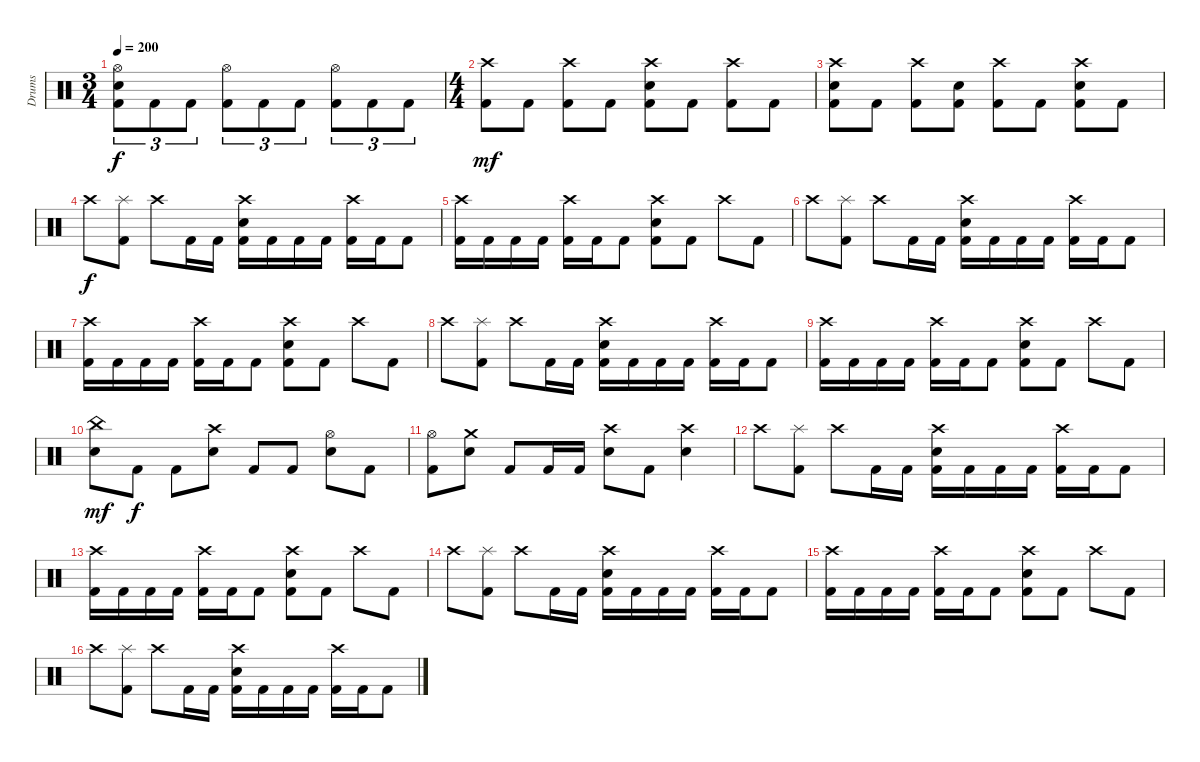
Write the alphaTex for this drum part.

\track ("Drums" "Drums") {instrument percussion}
\staff {score}
\articulation defaults
\ts (3 4)
\tempo 200
\clef neutral
\ks c
("Hi-Hat (open)" "Electric Snare (hit)" "Kick (hit) 2").8{tu (3 2) dy f} "Kick (hit) 2".8{tu (3 2)} "Kick (hit) 2".8{tu (3 2)} ("Hi-Hat (open)" "Kick (hit) 2").8{tu (3 2)} "Kick (hit) 2".8{tu (3 2)} "Kick (hit) 2".8{tu (3 2)} ("Hi-Hat (open)" "Kick (hit) 2").8{tu (3 2)} "Kick (hit) 2".8{tu (3 2)} "Kick (hit) 2".8{tu (3 2)} |
\ts (4 4)
("Crash high (hit)" "Kick (hit) 2").8{dy mf} "Kick (hit) 2".8 ("Crash high (hit)" "Kick (hit) 2").8 "Kick (hit) 2".8 ("Crash high (hit)" "Electric Snare (hit)" "Kick (hit) 2").8 "Kick (hit) 2".8 ("Crash high (hit)" "Kick (hit) 2").8 "Kick (hit) 2".8 |
("Crash high (hit)" "Electric Snare (hit)" "Kick (hit) 2").8 "Kick (hit) 2".8 ("Crash high (hit)" "Kick (hit) 2").8 ("Electric Snare (hit)" "Kick (hit) 2").8 ("Crash high (hit)" "Kick (hit) 2").8 "Kick (hit) 2".8 ("Crash high (hit)" "Electric Snare (hit)" "Kick (hit) 2").8 "Kick (hit) 2".8 |
"Crash high (hit)".8{dy f} ("Splash (hit)" "Kick (hit) 2").8 "Crash high (hit)".8 "Kick (hit) 2".16 "Kick (hit) 2".16 ("Crash high (hit)" "Electric Snare (hit)" "Kick (hit) 2").16 "Kick (hit) 2".16 "Kick (hit) 2".16 "Kick (hit) 2".16 ("Crash high (hit)" "Kick (hit) 2").16 "Kick (hit) 2".16 "Kick (hit) 2".8 |
("Crash high (hit)" "Kick (hit) 2").16 "Kick (hit) 2".16 "Kick (hit) 2".16 "Kick (hit) 2".16 ("Crash high (hit)" "Kick (hit) 2").16 "Kick (hit) 2".16 "Kick (hit) 2".8 ("Crash high (hit)" "Electric Snare (hit)" "Kick (hit) 2").8 "Kick (hit) 2".8 "Crash high (hit)".8 "Kick (hit) 2".8 |
"Crash high (hit)".8 ("Splash (hit)" "Kick (hit) 2").8 "Crash high (hit)".8 "Kick (hit) 2".16 "Kick (hit) 2".16 ("Crash high (hit)" "Electric Snare (hit)" "Kick (hit) 2").16 "Kick (hit) 2".16 "Kick (hit) 2".16 "Kick (hit) 2".16 ("Crash high (hit)" "Kick (hit) 2").16 "Kick (hit) 2".16 "Kick (hit) 2".8 |
("Crash high (hit)" "Kick (hit) 2").16 "Kick (hit) 2".16 "Kick (hit) 2".16 "Kick (hit) 2".16 ("Crash high (hit)" "Kick (hit) 2").16 "Kick (hit) 2".16 "Kick (hit) 2".8 ("Crash high (hit)" "Electric Snare (hit)" "Kick (hit) 2").8 "Kick (hit) 2".8 "Crash high (hit)".8 "Kick (hit) 2".8 |
"Crash high (hit)".8 ("Splash (hit)" "Kick (hit) 2").8 "Crash high (hit)".8 "Kick (hit) 2".16 "Kick (hit) 2".16 ("Crash high (hit)" "Electric Snare (hit)" "Kick (hit) 2").16 "Kick (hit) 2".16 "Kick (hit) 2".16 "Kick (hit) 2".16 ("Crash high (hit)" "Kick (hit) 2").16 "Kick (hit) 2".16 "Kick (hit) 2".8 |
("Crash high (hit)" "Kick (hit) 2").16 "Kick (hit) 2".16 "Kick (hit) 2".16 "Kick (hit) 2".16 ("Crash high (hit)" "Kick (hit) 2").16 "Kick (hit) 2".16 "Kick (hit) 2".8 ("Crash high (hit)" "Electric Snare (hit)" "Kick (hit) 2").8 "Kick (hit) 2".8 "Crash high (hit)".8 "Kick (hit) 2".8 |
("China (hit)" "Electric Snare (hit)").8{dy mf} "Kick (hit) 2".8{dy f} "Kick (hit) 2".8 ("Crash high (hit)" "Electric Snare (hit)").8 "Kick (hit) 2".8 "Kick (hit) 2".8 ("Hi-Hat (open)" "Electric Snare (hit)").8 "Kick (hit) 2".8 |
("Hi-Hat (open)" "Kick (hit) 2").8 ("Crash medium (hit)" "Electric Snare (hit)").8 "Kick (hit) 2".8 "Kick (hit) 2".16 "Kick (hit) 2".16 ("Crash high (hit)" "Electric Snare (hit)").8 "Kick (hit) 2".8 ("Crash high (hit)" "Electric Snare (hit)").4 |
"Crash high (hit)".8 ("Splash (hit)" "Kick (hit) 2").8 "Crash high (hit)".8 "Kick (hit) 2".16 "Kick (hit) 2".16 ("Crash high (hit)" "Electric Snare (hit)" "Kick (hit) 2").16 "Kick (hit) 2".16 "Kick (hit) 2".16 "Kick (hit) 2".16 ("Crash high (hit)" "Kick (hit) 2").16 "Kick (hit) 2".16 "Kick (hit) 2".8 |
("Crash high (hit)" "Kick (hit) 2").16 "Kick (hit) 2".16 "Kick (hit) 2".16 "Kick (hit) 2".16 ("Crash high (hit)" "Kick (hit) 2").16 "Kick (hit) 2".16 "Kick (hit) 2".8 ("Crash high (hit)" "Electric Snare (hit)" "Kick (hit) 2").8 "Kick (hit) 2".8 "Crash high (hit)".8 "Kick (hit) 2".8 |
"Crash high (hit)".8 ("Splash (hit)" "Kick (hit) 2").8 "Crash high (hit)".8 "Kick (hit) 2".16 "Kick (hit) 2".16 ("Crash high (hit)" "Electric Snare (hit)" "Kick (hit) 2").16 "Kick (hit) 2".16 "Kick (hit) 2".16 "Kick (hit) 2".16 ("Crash high (hit)" "Kick (hit) 2").16 "Kick (hit) 2".16 "Kick (hit) 2".8 |
("Crash high (hit)" "Kick (hit) 2").16 "Kick (hit) 2".16 "Kick (hit) 2".16 "Kick (hit) 2".16 ("Crash high (hit)" "Kick (hit) 2").16 "Kick (hit) 2".16 "Kick (hit) 2".8 ("Crash high (hit)" "Electric Snare (hit)" "Kick (hit) 2").8 "Kick (hit) 2".8 "Crash high (hit)".8 "Kick (hit) 2".8 |
"Crash high (hit)".8 ("Splash (hit)" "Kick (hit) 2").8 "Crash high (hit)".8 "Kick (hit) 2".16 "Kick (hit) 2".16 ("Crash high (hit)" "Electric Snare (hit)" "Kick (hit) 2").16 "Kick (hit) 2".16 "Kick (hit) 2".16 "Kick (hit) 2".16 ("Crash high (hit)" "Kick (hit) 2").16 "Kick (hit) 2".16 "Kick (hit) 2".8
